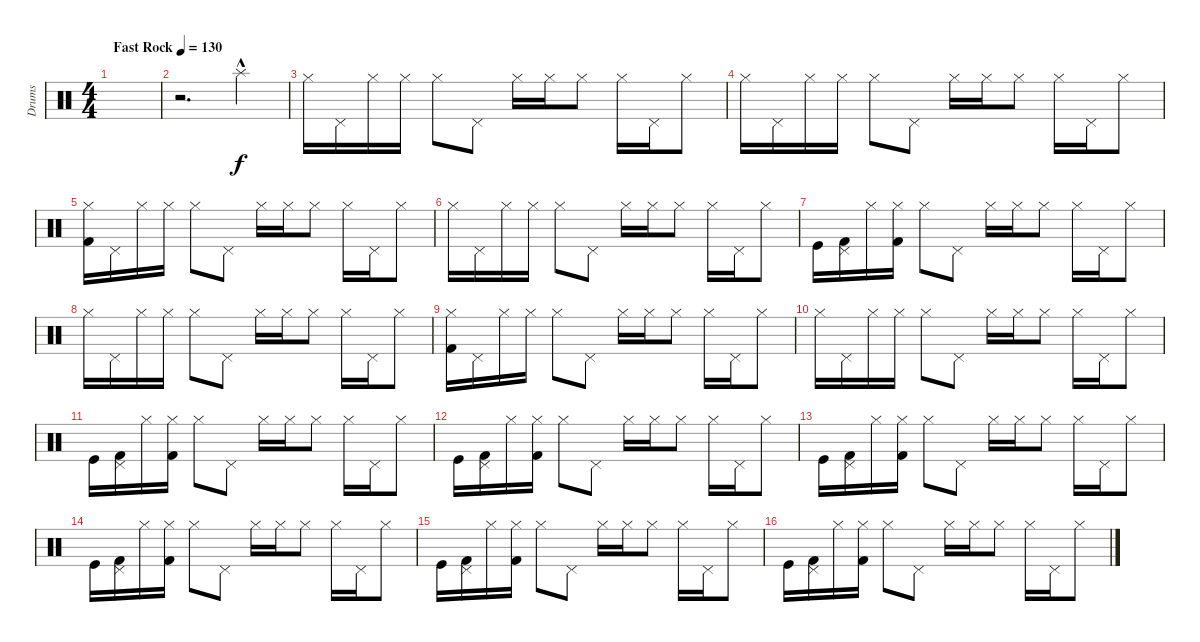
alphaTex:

\track ("Drums" "Drums") {instrument percussion}
\staff {score}
\articulation defaults
\ts (4 4)
\tempo (130 "Fast Rock")
\clef neutral
\ks c
|
r.2{d} "Splash (hit)"{hac}.4 |
"Hi-Hat (closed)".16{dy f} "Pedal Hi-Hat (hit)".16 "Hi-Hat (closed)".16 "Hi-Hat (closed)".16 "Hi-Hat (closed)".8 "Pedal Hi-Hat (hit)".8 "Hi-Hat (closed)".16 "Hi-Hat (closed)".16 "Hi-Hat (closed)".8 "Hi-Hat (closed)".16 "Pedal Hi-Hat (hit)".16 "Hi-Hat (closed)".8 |
"Hi-Hat (closed)".16 "Pedal Hi-Hat (hit)".16 "Hi-Hat (closed)".16 "Hi-Hat (closed)".16 "Hi-Hat (closed)".8 "Pedal Hi-Hat (hit)".8 "Hi-Hat (closed)".16 "Hi-Hat (closed)".16 "Hi-Hat (closed)".8 "Hi-Hat (closed)".16 "Pedal Hi-Hat (hit)".16 "Hi-Hat (closed)".8 |
("Hi-Hat (closed)" "Kick (hit) 2").16 "Pedal Hi-Hat (hit)".16 "Hi-Hat (closed)".16 "Hi-Hat (closed)".16 "Hi-Hat (closed)".8 "Pedal Hi-Hat (hit)".8 "Hi-Hat (closed)".16 "Hi-Hat (closed)".16 "Hi-Hat (closed)".8 "Hi-Hat (closed)".16 "Pedal Hi-Hat (hit)".16 "Hi-Hat (closed)".8 |
"Hi-Hat (closed)".16 "Pedal Hi-Hat (hit)".16 "Hi-Hat (closed)".16 "Hi-Hat (closed)".16 "Hi-Hat (closed)".8 "Pedal Hi-Hat (hit)".8 "Hi-Hat (closed)".16 "Hi-Hat (closed)".16 "Hi-Hat (closed)".8 "Hi-Hat (closed)".16 "Pedal Hi-Hat (hit)".16 "Hi-Hat (closed)".8 |
"Kick (hit)".16 ("Pedal Hi-Hat (hit)" "Kick (hit) 2").16 "Hi-Hat (closed)".16 ("Hi-Hat (closed)" "Kick (hit) 2").16 "Hi-Hat (closed)".8 "Pedal Hi-Hat (hit)".8 "Hi-Hat (closed)".16 "Hi-Hat (closed)".16 "Hi-Hat (closed)".8 "Hi-Hat (closed)".16 "Pedal Hi-Hat (hit)".16 "Hi-Hat (closed)".8 |
"Hi-Hat (closed)".16 "Pedal Hi-Hat (hit)".16 "Hi-Hat (closed)".16 "Hi-Hat (closed)".16 "Hi-Hat (closed)".8 "Pedal Hi-Hat (hit)".8 "Hi-Hat (closed)".16 "Hi-Hat (closed)".16 "Hi-Hat (closed)".8 "Hi-Hat (closed)".16 "Pedal Hi-Hat (hit)".16 "Hi-Hat (closed)".8 |
("Hi-Hat (closed)" "Kick (hit) 2").16 "Pedal Hi-Hat (hit)".16 "Hi-Hat (closed)".16 "Hi-Hat (closed)".16 "Hi-Hat (closed)".8 "Pedal Hi-Hat (hit)".8 "Hi-Hat (closed)".16 "Hi-Hat (closed)".16 "Hi-Hat (closed)".8 "Hi-Hat (closed)".16 "Pedal Hi-Hat (hit)".16 "Hi-Hat (closed)".8 |
"Hi-Hat (closed)".16 "Pedal Hi-Hat (hit)".16 "Hi-Hat (closed)".16 "Hi-Hat (closed)".16 "Hi-Hat (closed)".8 "Pedal Hi-Hat (hit)".8 "Hi-Hat (closed)".16 "Hi-Hat (closed)".16 "Hi-Hat (closed)".8 "Hi-Hat (closed)".16 "Pedal Hi-Hat (hit)".16 "Hi-Hat (closed)".8 |
"Kick (hit)".16 ("Pedal Hi-Hat (hit)" "Kick (hit) 2").16 "Hi-Hat (closed)".16 ("Hi-Hat (closed)" "Kick (hit) 2").16 "Hi-Hat (closed)".8 "Pedal Hi-Hat (hit)".8 "Hi-Hat (closed)".16 "Hi-Hat (closed)".16 "Hi-Hat (closed)".8 "Hi-Hat (closed)".16 "Pedal Hi-Hat (hit)".16 "Hi-Hat (closed)".8 |
"Kick (hit)".16 ("Pedal Hi-Hat (hit)" "Kick (hit) 2").16 "Hi-Hat (closed)".16 ("Hi-Hat (closed)" "Kick (hit) 2").16 "Hi-Hat (closed)".8 "Pedal Hi-Hat (hit)".8 "Hi-Hat (closed)".16 "Hi-Hat (closed)".16 "Hi-Hat (closed)".8 "Hi-Hat (closed)".16 "Pedal Hi-Hat (hit)".16 "Hi-Hat (closed)".8 |
"Kick (hit)".16 ("Pedal Hi-Hat (hit)" "Kick (hit) 2").16 "Hi-Hat (closed)".16 ("Hi-Hat (closed)" "Kick (hit) 2").16 "Hi-Hat (closed)".8 "Pedal Hi-Hat (hit)".8 "Hi-Hat (closed)".16 "Hi-Hat (closed)".16 "Hi-Hat (closed)".8 "Hi-Hat (closed)".16 "Pedal Hi-Hat (hit)".16 "Hi-Hat (closed)".8 |
"Kick (hit)".16 ("Pedal Hi-Hat (hit)" "Kick (hit) 2").16 "Hi-Hat (closed)".16 ("Hi-Hat (closed)" "Kick (hit) 2").16 "Hi-Hat (closed)".8 "Pedal Hi-Hat (hit)".8 "Hi-Hat (closed)".16 "Hi-Hat (closed)".16 "Hi-Hat (closed)".8 "Hi-Hat (closed)".16 "Pedal Hi-Hat (hit)".16 "Hi-Hat (closed)".8 |
"Kick (hit)".16 ("Pedal Hi-Hat (hit)" "Kick (hit) 2").16 "Hi-Hat (closed)".16 ("Hi-Hat (closed)" "Kick (hit) 2").16 "Hi-Hat (closed)".8 "Pedal Hi-Hat (hit)".8 "Hi-Hat (closed)".16 "Hi-Hat (closed)".16 "Hi-Hat (closed)".8 "Hi-Hat (closed)".16 "Pedal Hi-Hat (hit)".16 "Hi-Hat (closed)".8 |
"Kick (hit)".16 ("Pedal Hi-Hat (hit)" "Kick (hit) 2").16 "Hi-Hat (closed)".16 ("Hi-Hat (closed)" "Kick (hit) 2").16 "Hi-Hat (closed)".8 "Pedal Hi-Hat (hit)".8 "Hi-Hat (closed)".16 "Hi-Hat (closed)".16 "Hi-Hat (closed)".8 "Hi-Hat (closed)".16 "Pedal Hi-Hat (hit)".16 "Hi-Hat (closed)".8
